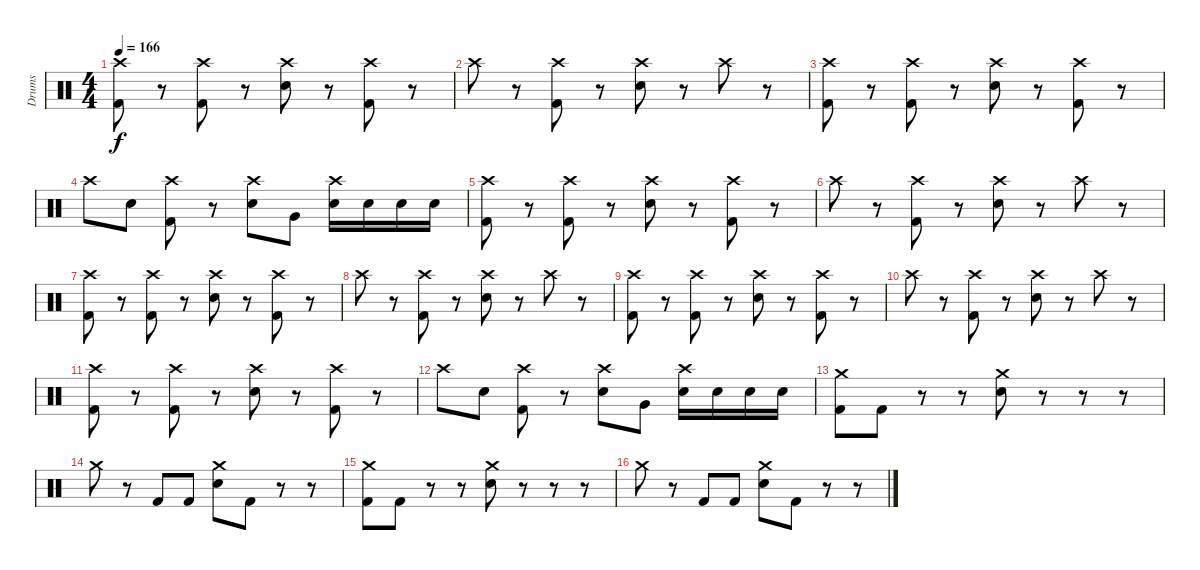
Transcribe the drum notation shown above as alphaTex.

\track ("Drums" "Drums") {instrument percussion}
\staff {score}
\articulation defaults
\ts (4 4)
\tempo 166
\clef neutral
\ks c
("Crash high (hit)" "Kick (hit) 2").8{dy f} r.8 ("Crash high (hit)" "Kick (hit) 2").8 r.8 ("Crash high (hit)" "Snare (hit) 2").8 r.8 ("Crash high (hit)" "Kick (hit) 2").8 r.8 |
"Crash high (hit)".8 r.8 ("Crash high (hit)" "Kick (hit) 2").8 r.8 ("Crash high (hit)" "Snare (hit) 2").8 r.8 "Crash high (hit)".8 r.8 |
("Crash high (hit)" "Kick (hit) 2").8 r.8 ("Crash high (hit)" "Kick (hit) 2").8 r.8 ("Crash high (hit)" "Snare (hit) 2").8 r.8 ("Crash high (hit)" "Kick (hit) 2").8 r.8 |
"Crash high (hit)".8 "Snare (hit) 2".8 ("Crash high (hit)" "Kick (hit) 2").8 r.8 ("Crash high (hit)" "Snare (hit) 2").8 "Very Low Tom (hit)".8 ("Crash high (hit)" "Snare (hit) 2").16 "Snare (hit) 2".16 "Snare (hit) 2".16 "Snare (hit) 2".16 |
("Crash high (hit)" "Kick (hit) 2").8 r.8 ("Crash high (hit)" "Kick (hit) 2").8 r.8 ("Crash high (hit)" "Snare (hit) 2").8 r.8 ("Crash high (hit)" "Kick (hit) 2").8 r.8 |
"Crash high (hit)".8 r.8 ("Crash high (hit)" "Kick (hit) 2").8 r.8 ("Crash high (hit)" "Snare (hit) 2").8 r.8 "Crash high (hit)".8 r.8 |
("Crash high (hit)" "Kick (hit) 2").8 r.8 ("Crash high (hit)" "Kick (hit) 2").8 r.8 ("Crash high (hit)" "Snare (hit) 2").8 r.8 ("Crash high (hit)" "Kick (hit) 2").8 r.8 |
"Crash high (hit)".8 r.8 ("Crash high (hit)" "Kick (hit) 2").8 r.8 ("Crash high (hit)" "Snare (hit) 2").8 r.8 "Crash high (hit)".8 r.8 |
("Crash high (hit)" "Kick (hit) 2").8 r.8 ("Crash high (hit)" "Kick (hit) 2").8 r.8 ("Crash high (hit)" "Snare (hit) 2").8 r.8 ("Crash high (hit)" "Kick (hit) 2").8 r.8 |
"Crash high (hit)".8 r.8 ("Crash high (hit)" "Kick (hit) 2").8 r.8 ("Crash high (hit)" "Snare (hit) 2").8 r.8 "Crash high (hit)".8 r.8 |
("Crash high (hit)" "Kick (hit) 2").8 r.8 ("Crash high (hit)" "Kick (hit) 2").8 r.8 ("Crash high (hit)" "Snare (hit) 2").8 r.8 ("Crash high (hit)" "Kick (hit) 2").8 r.8 |
"Crash high (hit)".8 "Snare (hit) 2".8 ("Crash high (hit)" "Kick (hit) 2").8 r.8 ("Crash high (hit)" "Snare (hit) 2").8 "Very Low Tom (hit)".8 ("Crash high (hit)" "Snare (hit) 2").16 "Snare (hit) 2".16 "Snare (hit) 2".16 "Snare (hit) 2".16 |
("Crash medium (hit)" "Kick (hit) 2").8 "Kick (hit) 2".8 r.8 r.8 ("Crash medium (hit)" "Snare (hit) 2").8 r.8 r.8 r.8 |
"Crash medium (hit)".8 r.8 "Kick (hit) 2".8 "Kick (hit) 2".8 ("Crash medium (hit)" "Snare (hit) 2").8 "Kick (hit) 2".8 r.8 r.8 |
("Crash medium (hit)" "Kick (hit) 2").8 "Kick (hit) 2".8 r.8 r.8 ("Crash medium (hit)" "Snare (hit) 2").8 r.8 r.8 r.8 |
"Crash medium (hit)".8 r.8 "Kick (hit) 2".8 "Kick (hit) 2".8 ("Crash medium (hit)" "Snare (hit) 2").8 "Kick (hit) 2".8 r.8 r.8
